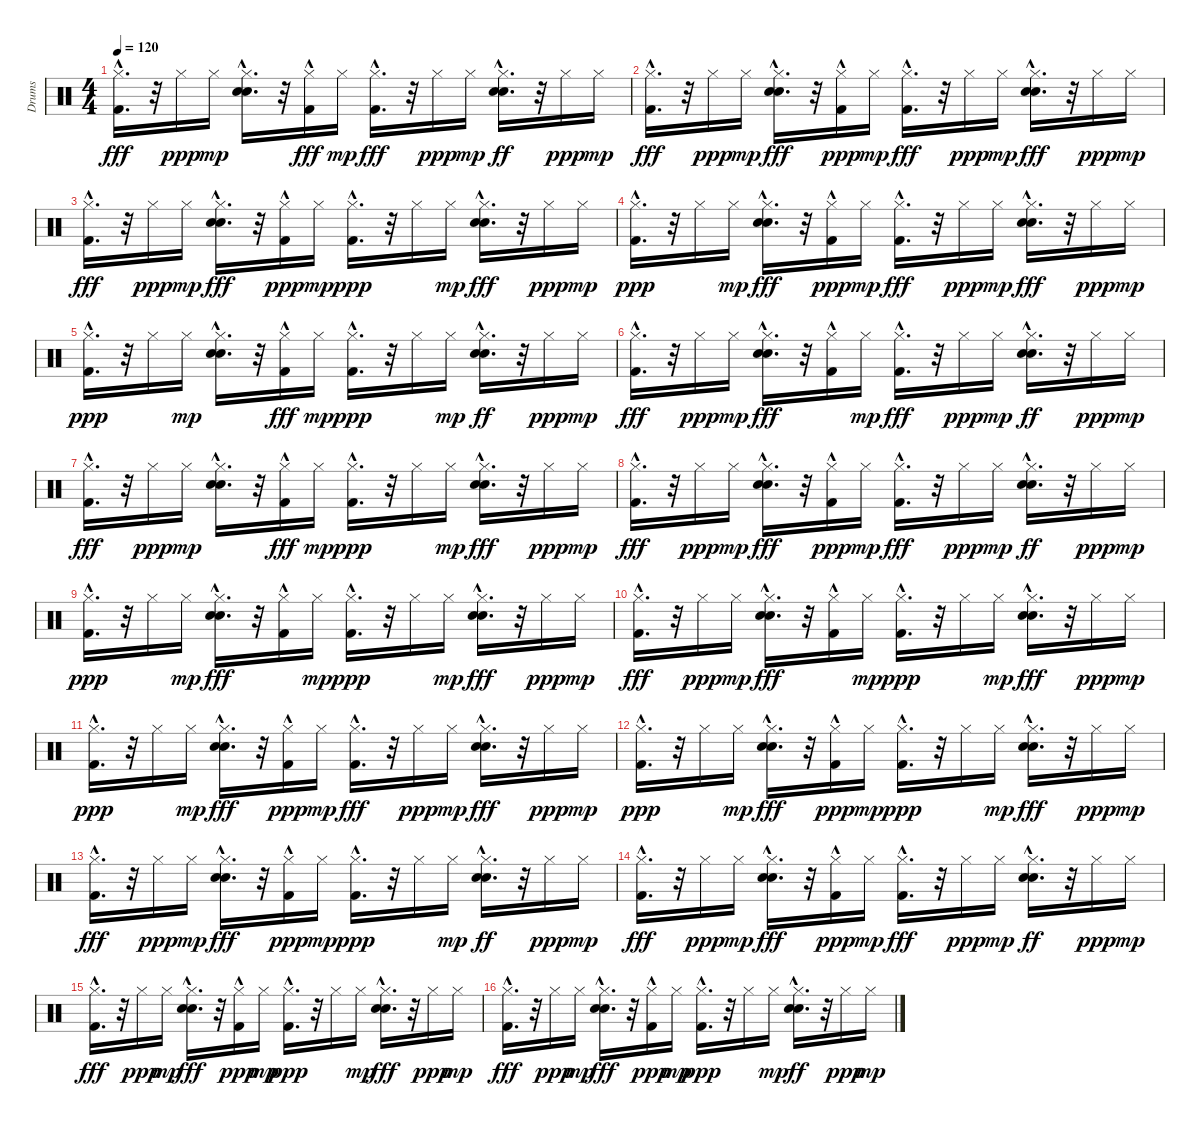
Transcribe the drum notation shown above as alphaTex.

\track ("Drums" "Drums") {instrument percussion}
\staff {score}
\articulation defaults
\ts (4 4)
\tempo 120
\clef neutral
\ks c
("Hi-Hat (closed)"{hac} "Kick (hit) 2"{hac}).16{d dy fff} r.32 "Hi-Hat (closed)".16{dy ppp} "Hi-Hat (closed)".16{dy mp} ("Snare (hit) 2"{hac} "Hand Clap (hit)"{hac} "Hi-Hat (closed)"{hac}).16{d} r.32 ("Hi-Hat (closed)" "Kick (hit) 2"{hac}).16{dy fff} "Hi-Hat (closed)".16{dy mp} ("Hi-Hat (closed)"{hac} "Kick (hit) 2"{hac}).16{d dy fff} r.32 "Hi-Hat (closed)".16{dy ppp} "Hi-Hat (closed)".16{dy mp} ("Snare (hit) 2"{hac} "Hand Clap (hit)"{hac} "Hi-Hat (closed)"{hac}).16{d dy ff} r.32 "Hi-Hat (closed)".16{dy ppp} "Hi-Hat (closed)".16{dy mp} |
("Hi-Hat (closed)"{hac} "Kick (hit) 2"{hac}).16{d dy fff} r.32 "Hi-Hat (closed)".16{dy ppp} "Hi-Hat (closed)".16{dy mp} ("Snare (hit) 2"{hac} "Hi-Hat (closed)"{hac} "Hand Clap (hit)"{hac}).16{d dy fff} r.32 ("Kick (hit) 2"{hac} "Hi-Hat (closed)").16{dy ppp} "Hi-Hat (closed)".16{dy mp} ("Hi-Hat (closed)"{hac} "Kick (hit) 2"{hac}).16{d dy fff} r.32 "Hi-Hat (closed)".16{dy ppp} "Hi-Hat (closed)".16{dy mp} ("Hi-Hat (closed)"{hac} "Hand Clap (hit)"{hac} "Snare (hit) 2"{hac}).16{d dy fff} r.32 "Hi-Hat (closed)".16{dy ppp} "Hi-Hat (closed)".16{dy mp} |
("Hi-Hat (closed)"{hac} "Kick (hit) 2"{hac}).16{d dy fff} r.32 "Hi-Hat (closed)".16{dy ppp} "Hi-Hat (closed)".16{dy mp} ("Hand Clap (hit)"{hac} "Hi-Hat (closed)"{hac} "Snare (hit) 2"{hac}).16{d dy fff} r.32 ("Kick (hit) 2"{hac} "Hi-Hat (closed)").16{dy ppp} "Hi-Hat (closed)".16{dy mp} ("Kick (hit) 2"{hac} "Hi-Hat (closed)"{hac}).16{d dy ppp} r.32 "Hi-Hat (closed)".16 "Hi-Hat (closed)".16{dy mp} ("Hi-Hat (closed)"{hac} "Hand Clap (hit)"{hac} "Snare (hit) 2"{hac}).16{d dy fff} r.32 "Hi-Hat (closed)".16{dy ppp} "Hi-Hat (closed)".16{dy mp} |
("Kick (hit) 2"{hac} "Hi-Hat (closed)"{hac}).16{d dy ppp} r.32 "Hi-Hat (closed)".16 "Hi-Hat (closed)".16{dy mp} ("Hi-Hat (closed)"{hac} "Hand Clap (hit)"{hac} "Snare (hit) 2"{hac}).16{d dy fff} r.32 ("Kick (hit) 2"{hac} "Hi-Hat (closed)").16{dy ppp} "Hi-Hat (closed)".16{dy mp} ("Hi-Hat (closed)"{hac} "Kick (hit) 2"{hac}).16{d dy fff} r.32 "Hi-Hat (closed)".16{dy ppp} "Hi-Hat (closed)".16{dy mp} ("Hi-Hat (closed)"{hac} "Snare (hit) 2"{hac} "Hand Clap (hit)"{hac}).16{d dy fff} r.32 "Hi-Hat (closed)".16{dy ppp} "Hi-Hat (closed)".16{dy mp} |
("Kick (hit) 2"{hac} "Hi-Hat (closed)"{hac}).16{d dy ppp} r.32 "Hi-Hat (closed)".16 "Hi-Hat (closed)".16{dy mp} ("Snare (hit) 2"{hac} "Hand Clap (hit)"{hac} "Hi-Hat (closed)"{hac}).16{d} r.32 ("Hi-Hat (closed)" "Kick (hit) 2"{hac}).16{dy fff} "Hi-Hat (closed)".16{dy mp} ("Kick (hit) 2"{hac} "Hi-Hat (closed)"{hac}).16{d dy ppp} r.32 "Hi-Hat (closed)".16 "Hi-Hat (closed)".16{dy mp} ("Hand Clap (hit)"{hac} "Snare (hit) 2"{hac} "Hi-Hat (closed)"{hac}).16{d dy ff} r.32 "Hi-Hat (closed)".16{dy ppp} "Hi-Hat (closed)".16{dy mp} |
("Hi-Hat (closed)"{hac} "Kick (hit) 2"{hac}).16{d dy fff} r.32 "Hi-Hat (closed)".16{dy ppp} "Hi-Hat (closed)".16{dy mp} ("Hi-Hat (closed)"{hac} "Snare (hit) 2"{hac} "Hand Clap (hit)"{hac}).16{d dy fff} r.32 ("Hi-Hat (closed)" "Kick (hit) 2"{hac}).16 "Hi-Hat (closed)".16{dy mp} ("Hi-Hat (closed)"{hac} "Kick (hit) 2"{hac}).16{d dy fff} r.32 "Hi-Hat (closed)".16{dy ppp} "Hi-Hat (closed)".16{dy mp} ("Hand Clap (hit)"{hac} "Snare (hit) 2"{hac} "Hi-Hat (closed)"{hac}).16{d dy ff} r.32 "Hi-Hat (closed)".16{dy ppp} "Hi-Hat (closed)".16{dy mp} |
("Hi-Hat (closed)"{hac} "Kick (hit) 2"{hac}).16{d dy fff} r.32 "Hi-Hat (closed)".16{dy ppp} "Hi-Hat (closed)".16{dy mp} ("Snare (hit) 2"{hac} "Hand Clap (hit)"{hac} "Hi-Hat (closed)"{hac}).16{d} r.32 ("Hi-Hat (closed)" "Kick (hit) 2"{hac}).16{dy fff} "Hi-Hat (closed)".16{dy mp} ("Kick (hit) 2"{hac} "Hi-Hat (closed)"{hac}).16{d dy ppp} r.32 "Hi-Hat (closed)".16 "Hi-Hat (closed)".16{dy mp} ("Hi-Hat (closed)"{hac} "Snare (hit) 2"{hac} "Hand Clap (hit)"{hac}).16{d dy fff} r.32 "Hi-Hat (closed)".16{dy ppp} "Hi-Hat (closed)".16{dy mp} |
("Hi-Hat (closed)"{hac} "Kick (hit) 2"{hac}).16{d dy fff} r.32 "Hi-Hat (closed)".16{dy ppp} "Hi-Hat (closed)".16{dy mp} ("Hi-Hat (closed)"{hac} "Hand Clap (hit)"{hac} "Snare (hit) 2"{hac}).16{d dy fff} r.32 ("Kick (hit) 2"{hac} "Hi-Hat (closed)").16{dy ppp} "Hi-Hat (closed)".16{dy mp} ("Hi-Hat (closed)"{hac} "Kick (hit) 2"{hac}).16{d dy fff} r.32 "Hi-Hat (closed)".16{dy ppp} "Hi-Hat (closed)".16{dy mp} ("Hand Clap (hit)"{hac} "Snare (hit) 2"{hac} "Hi-Hat (closed)"{hac}).16{d dy ff} r.32 "Hi-Hat (closed)".16{dy ppp} "Hi-Hat (closed)".16{dy mp} |
("Kick (hit) 2"{hac} "Hi-Hat (closed)"{hac}).16{d dy ppp} r.32 "Hi-Hat (closed)".16 "Hi-Hat (closed)".16{dy mp} ("Hi-Hat (closed)"{hac} "Hand Clap (hit)"{hac} "Snare (hit) 2"{hac}).16{d dy fff} r.32 ("Hi-Hat (closed)" "Kick (hit) 2"{hac}).16 "Hi-Hat (closed)".16{dy mp} ("Kick (hit) 2"{hac} "Hi-Hat (closed)"{hac}).16{d dy ppp} r.32 "Hi-Hat (closed)".16 "Hi-Hat (closed)".16{dy mp} ("Hi-Hat (closed)"{hac} "Snare (hit) 2"{hac} "Hand Clap (hit)"{hac}).16{d dy fff} r.32 "Hi-Hat (closed)".16{dy ppp} "Hi-Hat (closed)".16{dy mp} |
("Hi-Hat (closed)"{hac} "Kick (hit) 2"{hac}).16{d dy fff} r.32 "Hi-Hat (closed)".16{dy ppp} "Hi-Hat (closed)".16{dy mp} ("Hand Clap (hit)"{hac} "Hi-Hat (closed)"{hac} "Snare (hit) 2"{hac}).16{d dy fff} r.32 ("Hi-Hat (closed)" "Kick (hit) 2"{hac}).16 "Hi-Hat (closed)".16{dy mp} ("Kick (hit) 2"{hac} "Hi-Hat (closed)"{hac}).16{d dy ppp} r.32 "Hi-Hat (closed)".16 "Hi-Hat (closed)".16{dy mp} ("Hi-Hat (closed)"{hac} "Snare (hit) 2"{hac} "Hand Clap (hit)"{hac}).16{d dy fff} r.32 "Hi-Hat (closed)".16{dy ppp} "Hi-Hat (closed)".16{dy mp} |
("Kick (hit) 2"{hac} "Hi-Hat (closed)"{hac}).16{d dy ppp} r.32 "Hi-Hat (closed)".16 "Hi-Hat (closed)".16{dy mp} ("Hi-Hat (closed)"{hac} "Hand Clap (hit)"{hac} "Snare (hit) 2"{hac}).16{d dy fff} r.32 ("Kick (hit) 2"{hac} "Hi-Hat (closed)").16{dy ppp} "Hi-Hat (closed)".16{dy mp} ("Hi-Hat (closed)"{hac} "Kick (hit) 2"{hac}).16{d dy fff} r.32 "Hi-Hat (closed)".16{dy ppp} "Hi-Hat (closed)".16{dy mp} ("Snare (hit) 2"{hac} "Hi-Hat (closed)"{hac} "Hand Clap (hit)"{hac}).16{d dy fff} r.32 "Hi-Hat (closed)".16{dy ppp} "Hi-Hat (closed)".16{dy mp} |
("Kick (hit) 2"{hac} "Hi-Hat (closed)"{hac}).16{d dy ppp} r.32 "Hi-Hat (closed)".16 "Hi-Hat (closed)".16{dy mp} ("Snare (hit) 2"{hac} "Hi-Hat (closed)"{hac} "Hand Clap (hit)"{hac}).16{d dy fff} r.32 ("Kick (hit) 2"{hac} "Hi-Hat (closed)").16{dy ppp} "Hi-Hat (closed)".16{dy mp} ("Kick (hit) 2"{hac} "Hi-Hat (closed)"{hac}).16{d dy ppp} r.32 "Hi-Hat (closed)".16 "Hi-Hat (closed)".16{dy mp} ("Hi-Hat (closed)"{hac} "Hand Clap (hit)"{hac} "Snare (hit) 2"{hac}).16{d dy fff} r.32 "Hi-Hat (closed)".16{dy ppp} "Hi-Hat (closed)".16{dy mp} |
("Hi-Hat (closed)"{hac} "Kick (hit) 2"{hac}).16{d dy fff} r.32 "Hi-Hat (closed)".16{dy ppp} "Hi-Hat (closed)".16{dy mp} ("Snare (hit) 2"{hac} "Hi-Hat (closed)"{hac} "Hand Clap (hit)"{hac}).16{d dy fff} r.32 ("Kick (hit) 2"{hac} "Hi-Hat (closed)").16{dy ppp} "Hi-Hat (closed)".16{dy mp} ("Kick (hit) 2"{hac} "Hi-Hat (closed)"{hac}).16{d dy ppp} r.32 "Hi-Hat (closed)".16 "Hi-Hat (closed)".16{dy mp} ("Hand Clap (hit)"{hac} "Snare (hit) 2"{hac} "Hi-Hat (closed)"{hac}).16{d dy ff} r.32 "Hi-Hat (closed)".16{dy ppp} "Hi-Hat (closed)".16{dy mp} |
("Hi-Hat (closed)"{hac} "Kick (hit) 2"{hac}).16{d dy fff} r.32 "Hi-Hat (closed)".16{dy ppp} "Hi-Hat (closed)".16{dy mp} ("Hi-Hat (closed)"{hac} "Hand Clap (hit)"{hac} "Snare (hit) 2"{hac}).16{d dy fff} r.32 ("Kick (hit) 2"{hac} "Hi-Hat (closed)").16{dy ppp} "Hi-Hat (closed)".16{dy mp} ("Hi-Hat (closed)"{hac} "Kick (hit) 2"{hac}).16{d dy fff} r.32 "Hi-Hat (closed)".16{dy ppp} "Hi-Hat (closed)".16{dy mp} ("Snare (hit) 2"{hac} "Hand Clap (hit)"{hac} "Hi-Hat (closed)"{hac}).16{d dy ff} r.32 "Hi-Hat (closed)".16{dy ppp} "Hi-Hat (closed)".16{dy mp} |
("Hi-Hat (closed)"{hac} "Kick (hit) 2"{hac}).16{d dy fff} r.32 "Hi-Hat (closed)".16{dy ppp} "Hi-Hat (closed)".16{dy mp} ("Hand Clap (hit)"{hac} "Hi-Hat (closed)"{hac} "Snare (hit) 2"{hac}).16{d dy fff} r.32 ("Kick (hit) 2"{hac} "Hi-Hat (closed)").16{dy ppp} "Hi-Hat (closed)".16{dy mp} ("Kick (hit) 2"{hac} "Hi-Hat (closed)"{hac}).16{d dy ppp} r.32 "Hi-Hat (closed)".16 "Hi-Hat (closed)".16{dy mp} ("Hi-Hat (closed)"{hac} "Hand Clap (hit)"{hac} "Snare (hit) 2"{hac}).16{d dy fff} r.32 "Hi-Hat (closed)".16{dy ppp} "Hi-Hat (closed)".16{dy mp} |
("Hi-Hat (closed)"{hac} "Kick (hit) 2"{hac}).16{d dy fff} r.32 "Hi-Hat (closed)".16{dy ppp} "Hi-Hat (closed)".16{dy mp} ("Snare (hit) 2"{hac} "Hi-Hat (closed)"{hac} "Hand Clap (hit)"{hac}).16{d dy fff} r.32 ("Kick (hit) 2"{hac} "Hi-Hat (closed)").16{dy ppp} "Hi-Hat (closed)".16{dy mp} ("Kick (hit) 2"{hac} "Hi-Hat (closed)"{hac}).16{d dy ppp} r.32 "Hi-Hat (closed)".16 "Hi-Hat (closed)".16{dy mp} ("Snare (hit) 2"{hac} "Hand Clap (hit)"{hac} "Hi-Hat (closed)"{hac}).16{d dy ff} r.32 "Hi-Hat (closed)".16{dy ppp} "Hi-Hat (closed)".16{dy mp}
